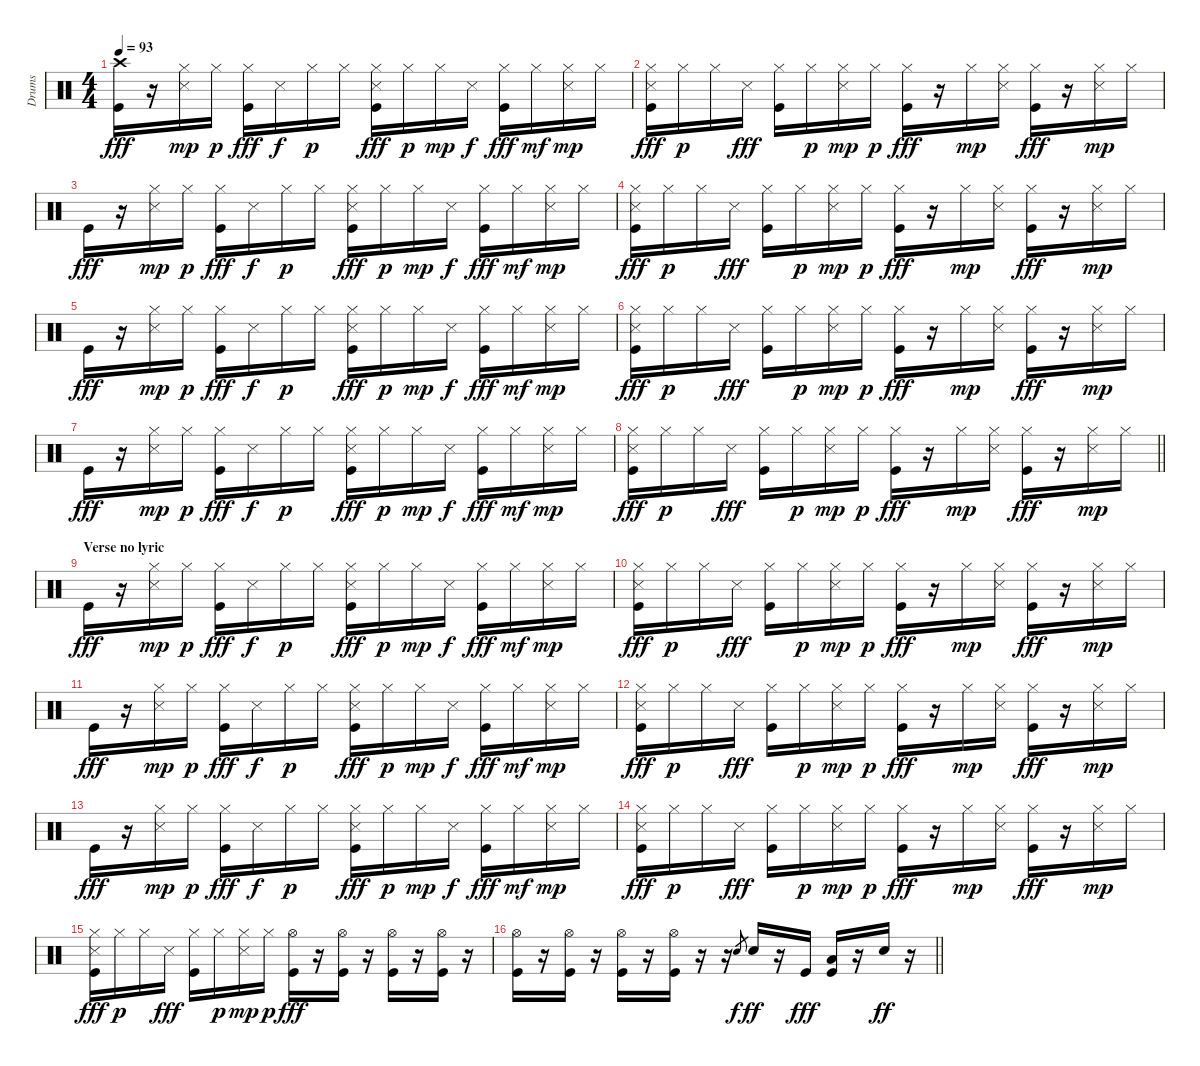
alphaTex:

\track ("Drums" "Drums") {instrument percussion}
\staff {score}
\articulation defaults
\ts (4 4)
\tempo 93
\clef neutral
\ks c
("Crash high (hit)" "Kick (hit)").16{dy fff} r.16 ("Snare (side stick) 3" "Hi-Hat (closed)").16{dy mp} "Hi-Hat (closed)".16{dy p} ("Hi-Hat (closed)" "Kick (hit)").16{dy fff} "Snare (side stick) 3".16{dy f} "Hi-Hat (closed)".16{dy p} "Hi-Hat (closed)".16 ("Snare (side stick) 3" "Hi-Hat (closed)" "Kick (hit)").16{dy fff} "Hi-Hat (closed)".16{dy p} "Hi-Hat (closed)".16{dy mp} "Snare (side stick) 3".16{dy f} ("Hi-Hat (closed)" "Kick (hit)").16{dy fff} "Hi-Hat (closed)".16{dy mf} ("Snare (side stick) 3" "Hi-Hat (closed)").16{dy mp} "Hi-Hat (closed)".16 |
("Snare (side stick) 3" "Hi-Hat (closed)" "Kick (hit)").16{dy fff} "Hi-Hat (closed)".16{dy p} "Hi-Hat (closed)".16 "Snare (side stick) 3".16{dy fff} ("Hi-Hat (closed)" "Kick (hit)").16 "Hi-Hat (closed)".16{dy p} ("Snare (side stick) 3" "Hi-Hat (closed)").16{dy mp} "Hi-Hat (closed)".16{dy p} ("Hi-Hat (closed)" "Kick (hit)").16{dy fff} r.16 "Hi-Hat (closed)".16{dy mp} ("Snare (side stick) 3" "Hi-Hat (closed)").16 ("Hi-Hat (closed)" "Kick (hit)").16{dy fff} r.16 ("Snare (side stick) 3" "Hi-Hat (closed)").16{dy mp} "Hi-Hat (closed)".16 |
"Kick (hit)".16{dy fff} r.16 ("Snare (side stick) 3" "Hi-Hat (closed)").16{dy mp} "Hi-Hat (closed)".16{dy p} ("Hi-Hat (closed)" "Kick (hit)").16{dy fff} "Snare (side stick) 3".16{dy f} "Hi-Hat (closed)".16{dy p} "Hi-Hat (closed)".16 ("Snare (side stick) 3" "Hi-Hat (closed)" "Kick (hit)").16{dy fff} "Hi-Hat (closed)".16{dy p} "Hi-Hat (closed)".16{dy mp} "Snare (side stick) 3".16{dy f} ("Hi-Hat (closed)" "Kick (hit)").16{dy fff} "Hi-Hat (closed)".16{dy mf} ("Snare (side stick) 3" "Hi-Hat (closed)").16{dy mp} "Hi-Hat (closed)".16 |
("Snare (side stick) 3" "Hi-Hat (closed)" "Kick (hit)").16{dy fff} "Hi-Hat (closed)".16{dy p} "Hi-Hat (closed)".16 "Snare (side stick) 3".16{dy fff} ("Hi-Hat (closed)" "Kick (hit)").16 "Hi-Hat (closed)".16{dy p} ("Snare (side stick) 3" "Hi-Hat (closed)").16{dy mp} "Hi-Hat (closed)".16{dy p} ("Hi-Hat (closed)" "Kick (hit)").16{dy fff} r.16 "Hi-Hat (closed)".16{dy mp} ("Snare (side stick) 3" "Hi-Hat (closed)").16 ("Hi-Hat (closed)" "Kick (hit)").16{dy fff} r.16 ("Snare (side stick) 3" "Hi-Hat (closed)").16{dy mp} "Hi-Hat (closed)".16 |
"Kick (hit)".16{dy fff} r.16 ("Snare (side stick) 3" "Hi-Hat (closed)").16{dy mp} "Hi-Hat (closed)".16{dy p} ("Hi-Hat (closed)" "Kick (hit)").16{dy fff} "Snare (side stick) 3".16{dy f} "Hi-Hat (closed)".16{dy p} "Hi-Hat (closed)".16 ("Snare (side stick) 3" "Hi-Hat (closed)" "Kick (hit)").16{dy fff} "Hi-Hat (closed)".16{dy p} "Hi-Hat (closed)".16{dy mp} "Snare (side stick) 3".16{dy f} ("Hi-Hat (closed)" "Kick (hit)").16{dy fff} "Hi-Hat (closed)".16{dy mf} ("Snare (side stick) 3" "Hi-Hat (closed)").16{dy mp} "Hi-Hat (closed)".16 |
("Snare (side stick) 3" "Hi-Hat (closed)" "Kick (hit)").16{dy fff} "Hi-Hat (closed)".16{dy p} "Hi-Hat (closed)".16 "Snare (side stick) 3".16{dy fff} ("Hi-Hat (closed)" "Kick (hit)").16 "Hi-Hat (closed)".16{dy p} ("Snare (side stick) 3" "Hi-Hat (closed)").16{dy mp} "Hi-Hat (closed)".16{dy p} ("Hi-Hat (closed)" "Kick (hit)").16{dy fff} r.16 "Hi-Hat (closed)".16{dy mp} ("Snare (side stick) 3" "Hi-Hat (closed)").16 ("Hi-Hat (closed)" "Kick (hit)").16{dy fff} r.16 ("Snare (side stick) 3" "Hi-Hat (closed)").16{dy mp} "Hi-Hat (closed)".16 |
"Kick (hit)".16{dy fff} r.16 ("Snare (side stick) 3" "Hi-Hat (closed)").16{dy mp} "Hi-Hat (closed)".16{dy p} ("Hi-Hat (closed)" "Kick (hit)").16{dy fff} "Snare (side stick) 3".16{dy f} "Hi-Hat (closed)".16{dy p} "Hi-Hat (closed)".16 ("Snare (side stick) 3" "Hi-Hat (closed)" "Kick (hit)").16{dy fff} "Hi-Hat (closed)".16{dy p} "Hi-Hat (closed)".16{dy mp} "Snare (side stick) 3".16{dy f} ("Hi-Hat (closed)" "Kick (hit)").16{dy fff} "Hi-Hat (closed)".16{dy mf} ("Snare (side stick) 3" "Hi-Hat (closed)").16{dy mp} "Hi-Hat (closed)".16 |
\barLineRight lightlight
("Snare (side stick) 3" "Hi-Hat (closed)" "Kick (hit)").16{dy fff} "Hi-Hat (closed)".16{dy p} "Hi-Hat (closed)".16 "Snare (side stick) 3".16{dy fff} ("Hi-Hat (closed)" "Kick (hit)").16 "Hi-Hat (closed)".16{dy p} ("Snare (side stick) 3" "Hi-Hat (closed)").16{dy mp} "Hi-Hat (closed)".16{dy p} ("Hi-Hat (closed)" "Kick (hit)").16{dy fff} r.16 "Hi-Hat (closed)".16{dy mp} ("Snare (side stick) 3" "Hi-Hat (closed)").16 ("Hi-Hat (closed)" "Kick (hit)").16{dy fff} r.16 ("Snare (side stick) 3" "Hi-Hat (closed)").16{dy mp} "Hi-Hat (closed)".16 |
\section ("" "Verse no lyric")
"Kick (hit)".16{dy fff} r.16 ("Snare (side stick) 3" "Hi-Hat (closed)").16{dy mp} "Hi-Hat (closed)".16{dy p} ("Hi-Hat (closed)" "Kick (hit)").16{dy fff} "Snare (side stick) 3".16{dy f} "Hi-Hat (closed)".16{dy p} "Hi-Hat (closed)".16 ("Snare (side stick) 3" "Hi-Hat (closed)" "Kick (hit)").16{dy fff} "Hi-Hat (closed)".16{dy p} "Hi-Hat (closed)".16{dy mp} "Snare (side stick) 3".16{dy f} ("Hi-Hat (closed)" "Kick (hit)").16{dy fff} "Hi-Hat (closed)".16{dy mf} ("Snare (side stick) 3" "Hi-Hat (closed)").16{dy mp} "Hi-Hat (closed)".16 |
("Snare (side stick) 3" "Hi-Hat (closed)" "Kick (hit)").16{dy fff} "Hi-Hat (closed)".16{dy p} "Hi-Hat (closed)".16 "Snare (side stick) 3".16{dy fff} ("Hi-Hat (closed)" "Kick (hit)").16 "Hi-Hat (closed)".16{dy p} ("Snare (side stick) 3" "Hi-Hat (closed)").16{dy mp} "Hi-Hat (closed)".16{dy p} ("Hi-Hat (closed)" "Kick (hit)").16{dy fff} r.16 "Hi-Hat (closed)".16{dy mp} ("Snare (side stick) 3" "Hi-Hat (closed)").16 ("Hi-Hat (closed)" "Kick (hit)").16{dy fff} r.16 ("Snare (side stick) 3" "Hi-Hat (closed)").16{dy mp} "Hi-Hat (closed)".16 |
"Kick (hit)".16{dy fff} r.16 ("Snare (side stick) 3" "Hi-Hat (closed)").16{dy mp} "Hi-Hat (closed)".16{dy p} ("Hi-Hat (closed)" "Kick (hit)").16{dy fff} "Snare (side stick) 3".16{dy f} "Hi-Hat (closed)".16{dy p} "Hi-Hat (closed)".16 ("Snare (side stick) 3" "Hi-Hat (closed)" "Kick (hit)").16{dy fff} "Hi-Hat (closed)".16{dy p} "Hi-Hat (closed)".16{dy mp} "Snare (side stick) 3".16{dy f} ("Hi-Hat (closed)" "Kick (hit)").16{dy fff} "Hi-Hat (closed)".16{dy mf} ("Snare (side stick) 3" "Hi-Hat (closed)").16{dy mp} "Hi-Hat (closed)".16 |
("Snare (side stick) 3" "Hi-Hat (closed)" "Kick (hit)").16{dy fff} "Hi-Hat (closed)".16{dy p} "Hi-Hat (closed)".16 "Snare (side stick) 3".16{dy fff} ("Hi-Hat (closed)" "Kick (hit)").16 "Hi-Hat (closed)".16{dy p} ("Snare (side stick) 3" "Hi-Hat (closed)").16{dy mp} "Hi-Hat (closed)".16{dy p} ("Hi-Hat (closed)" "Kick (hit)").16{dy fff} r.16 "Hi-Hat (closed)".16{dy mp} ("Snare (side stick) 3" "Hi-Hat (closed)").16 ("Hi-Hat (closed)" "Kick (hit)").16{dy fff} r.16 ("Snare (side stick) 3" "Hi-Hat (closed)").16{dy mp} "Hi-Hat (closed)".16 |
"Kick (hit)".16{dy fff} r.16 ("Snare (side stick) 3" "Hi-Hat (closed)").16{dy mp} "Hi-Hat (closed)".16{dy p} ("Hi-Hat (closed)" "Kick (hit)").16{dy fff} "Snare (side stick) 3".16{dy f} "Hi-Hat (closed)".16{dy p} "Hi-Hat (closed)".16 ("Snare (side stick) 3" "Hi-Hat (closed)" "Kick (hit)").16{dy fff} "Hi-Hat (closed)".16{dy p} "Hi-Hat (closed)".16{dy mp} "Snare (side stick) 3".16{dy f} ("Hi-Hat (closed)" "Kick (hit)").16{dy fff} "Hi-Hat (closed)".16{dy mf} ("Snare (side stick) 3" "Hi-Hat (closed)").16{dy mp} "Hi-Hat (closed)".16 |
("Snare (side stick) 3" "Hi-Hat (closed)" "Kick (hit)").16{dy fff} "Hi-Hat (closed)".16{dy p} "Hi-Hat (closed)".16 "Snare (side stick) 3".16{dy fff} ("Hi-Hat (closed)" "Kick (hit)").16 "Hi-Hat (closed)".16{dy p} ("Snare (side stick) 3" "Hi-Hat (closed)").16{dy mp} "Hi-Hat (closed)".16{dy p} ("Hi-Hat (closed)" "Kick (hit)").16{dy fff} r.16 "Hi-Hat (closed)".16{dy mp} ("Snare (side stick) 3" "Hi-Hat (closed)").16 ("Hi-Hat (closed)" "Kick (hit)").16{dy fff} r.16 ("Snare (side stick) 3" "Hi-Hat (closed)").16{dy mp} "Hi-Hat (closed)".16 |
("Snare (side stick) 3" "Hi-Hat (closed)" "Kick (hit)").16{dy fff} "Hi-Hat (closed)".16{dy p} "Hi-Hat (closed)".16 "Snare (side stick) 3".16{dy fff} ("Hi-Hat (closed)" "Kick (hit)").16 "Hi-Hat (closed)".16{dy p} ("Snare (side stick) 3" "Hi-Hat (closed)").16{dy mp} "Hi-Hat (closed)".16{dy p} ("Hi-Hat (open)" "Kick (hit)").16{dy fff} r.16 ("Hi-Hat (open)" "Kick (hit)").16 r.16 ("Hi-Hat (open)" "Kick (hit)").16 r.16 ("Hi-Hat (open)" "Kick (hit)").16 r.16 |
\barLineRight lightlight
("Hi-Hat (open)" "Kick (hit)").16 r.16 ("Hi-Hat (open)" "Kick (hit)").16 r.16 ("Hi-Hat (open)" "Kick (hit)").16 r.16 ("Hi-Hat (open)" "Kick (hit)").16 r.16 r.16 "Electric Snare (hit)".8{gr dy f} "Electric Snare (hit)".16{dy ff} r.16 "Kick (hit)".16{dy fff} ("Low Floor Tom (hit)" "Kick (hit)").16 r.16 "Electric Snare (hit)".16{dy ff} r.16
